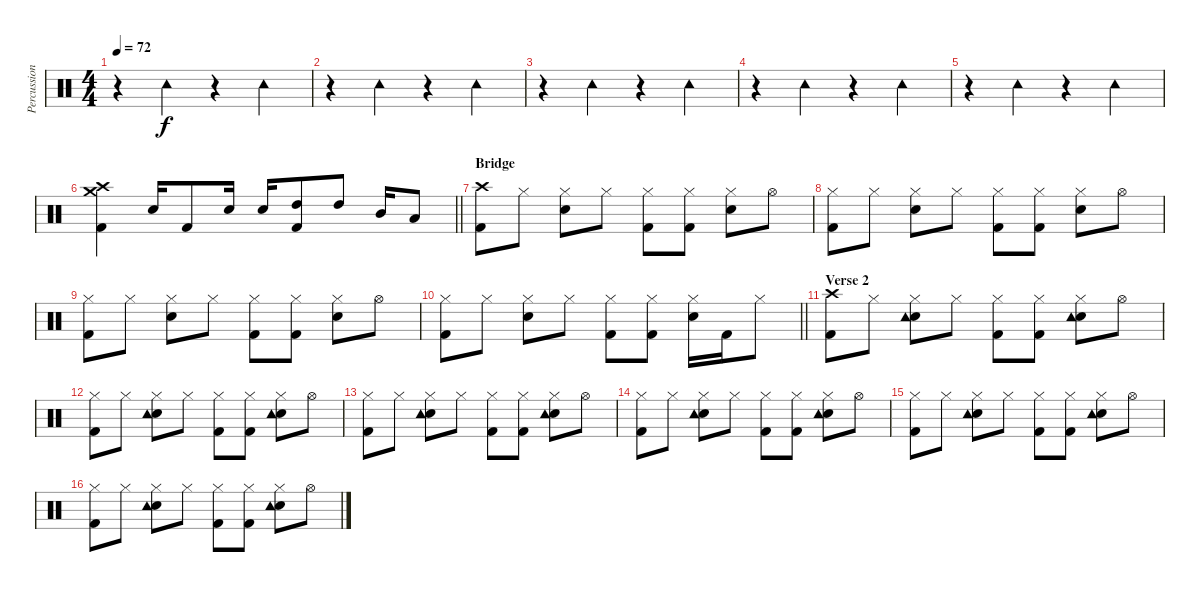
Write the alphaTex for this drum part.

\track ("Percussion" "Percussion") {instrument percussion}
\staff {score}
\articulation defaults
\ts (4 4)
\tempo 72
\clef neutral
\ks c
r.4{dy f} "Tambourine (hit)".4 r.4 "Tambourine (hit)".4 |
r.4 "Tambourine (hit)".4 r.4 "Tambourine (hit)".4 |
r.4 "Tambourine (hit)".4 r.4 "Tambourine (hit)".4 |
r.4 "Tambourine (hit)".4 r.4 "Tambourine (hit)".4 |
r.4 "Tambourine (hit)".4 r.4 "Tambourine (hit)".4 |
\barLineRight lightlight
("Crash high (hit)" "Crash medium (hit)" "Kick (hit) 2").4 "Snare (hit) 2".16 "Kick (hit) 2".8 "Snare (hit) 2".16 "Snare (hit) 2".16 ("High Tom (hit)" "Kick (hit) 2").8 "High Tom (hit)".8 "Mid Tom (hit)".16 "Low Tom (hit)".8 |
\section ("" "Bridge")
("Crash high (hit)" "Kick (hit) 2").8 "Hi-Hat (closed)".8 ("Hi-Hat (closed)" "Snare (hit) 2").8 "Hi-Hat (closed)".8 ("Hi-Hat (closed)" "Kick (hit) 2").8 ("Hi-Hat (closed)" "Kick (hit) 2").8 ("Hi-Hat (closed)" "Snare (hit) 2").8 "Hi-Hat (open)".8 |
("Hi-Hat (closed)" "Kick (hit) 2").8 "Hi-Hat (closed)".8 ("Hi-Hat (closed)" "Snare (hit) 2").8 "Hi-Hat (closed)".8 ("Hi-Hat (closed)" "Kick (hit) 2").8 ("Hi-Hat (closed)" "Kick (hit) 2").8 ("Hi-Hat (closed)" "Snare (hit) 2").8 "Hi-Hat (open)".8 |
("Hi-Hat (closed)" "Kick (hit) 2").8 "Hi-Hat (closed)".8 ("Hi-Hat (closed)" "Snare (hit) 2").8 "Hi-Hat (closed)".8 ("Hi-Hat (closed)" "Kick (hit) 2").8 ("Hi-Hat (closed)" "Kick (hit) 2").8 ("Hi-Hat (closed)" "Snare (hit) 2").8 "Hi-Hat (open)".8 |
\barLineRight lightlight
("Hi-Hat (closed)" "Kick (hit) 2").8 "Hi-Hat (closed)".8 ("Hi-Hat (closed)" "Snare (hit) 2").8 "Hi-Hat (closed)".8 ("Hi-Hat (closed)" "Kick (hit) 2").8 ("Hi-Hat (closed)" "Kick (hit) 2").8 ("Hi-Hat (closed)" "Snare (hit) 2").16 "Kick (hit) 2".16 "Hi-Hat (closed)".8 |
\section ("" "Verse 2")
("Crash high (hit)" "Kick (hit) 2").8 "Hi-Hat (closed)".8 ("Hi-Hat (closed)" "Snare (hit) 2" "Tambourine (hit)").8 "Hi-Hat (closed)".8 ("Hi-Hat (closed)" "Kick (hit) 2").8 ("Hi-Hat (closed)" "Kick (hit) 2").8 ("Hi-Hat (closed)" "Snare (hit) 2" "Tambourine (hit)").8 "Hi-Hat (open)".8 |
("Hi-Hat (closed)" "Kick (hit) 2").8 "Hi-Hat (closed)".8 ("Hi-Hat (closed)" "Snare (hit) 2" "Tambourine (hit)").8 "Hi-Hat (closed)".8 ("Hi-Hat (closed)" "Kick (hit) 2").8 ("Hi-Hat (closed)" "Kick (hit) 2").8 ("Hi-Hat (closed)" "Snare (hit) 2" "Tambourine (hit)").8 "Hi-Hat (open)".8 |
("Hi-Hat (closed)" "Kick (hit) 2").8 "Hi-Hat (closed)".8 ("Hi-Hat (closed)" "Snare (hit) 2" "Tambourine (hit)").8 "Hi-Hat (closed)".8 ("Hi-Hat (closed)" "Kick (hit) 2").8 ("Hi-Hat (closed)" "Kick (hit) 2").8 ("Hi-Hat (closed)" "Snare (hit) 2" "Tambourine (hit)").8 "Hi-Hat (open)".8 |
("Hi-Hat (closed)" "Kick (hit) 2").8 "Hi-Hat (closed)".8 ("Hi-Hat (closed)" "Snare (hit) 2" "Tambourine (hit)").8 "Hi-Hat (closed)".8 ("Hi-Hat (closed)" "Kick (hit) 2").8 ("Hi-Hat (closed)" "Kick (hit) 2").8 ("Hi-Hat (closed)" "Snare (hit) 2" "Tambourine (hit)").8 "Hi-Hat (open)".8 |
("Hi-Hat (closed)" "Kick (hit) 2").8 "Hi-Hat (closed)".8 ("Hi-Hat (closed)" "Snare (hit) 2" "Tambourine (hit)").8 "Hi-Hat (closed)".8 ("Hi-Hat (closed)" "Kick (hit) 2").8 ("Hi-Hat (closed)" "Kick (hit) 2").8 ("Hi-Hat (closed)" "Snare (hit) 2" "Tambourine (hit)").8 "Hi-Hat (open)".8 |
("Hi-Hat (closed)" "Kick (hit) 2").8 "Hi-Hat (closed)".8 ("Hi-Hat (closed)" "Snare (hit) 2" "Tambourine (hit)").8 "Hi-Hat (closed)".8 ("Hi-Hat (closed)" "Kick (hit) 2").8 ("Hi-Hat (closed)" "Kick (hit) 2").8 ("Hi-Hat (closed)" "Snare (hit) 2" "Tambourine (hit)").8 "Hi-Hat (open)".8
